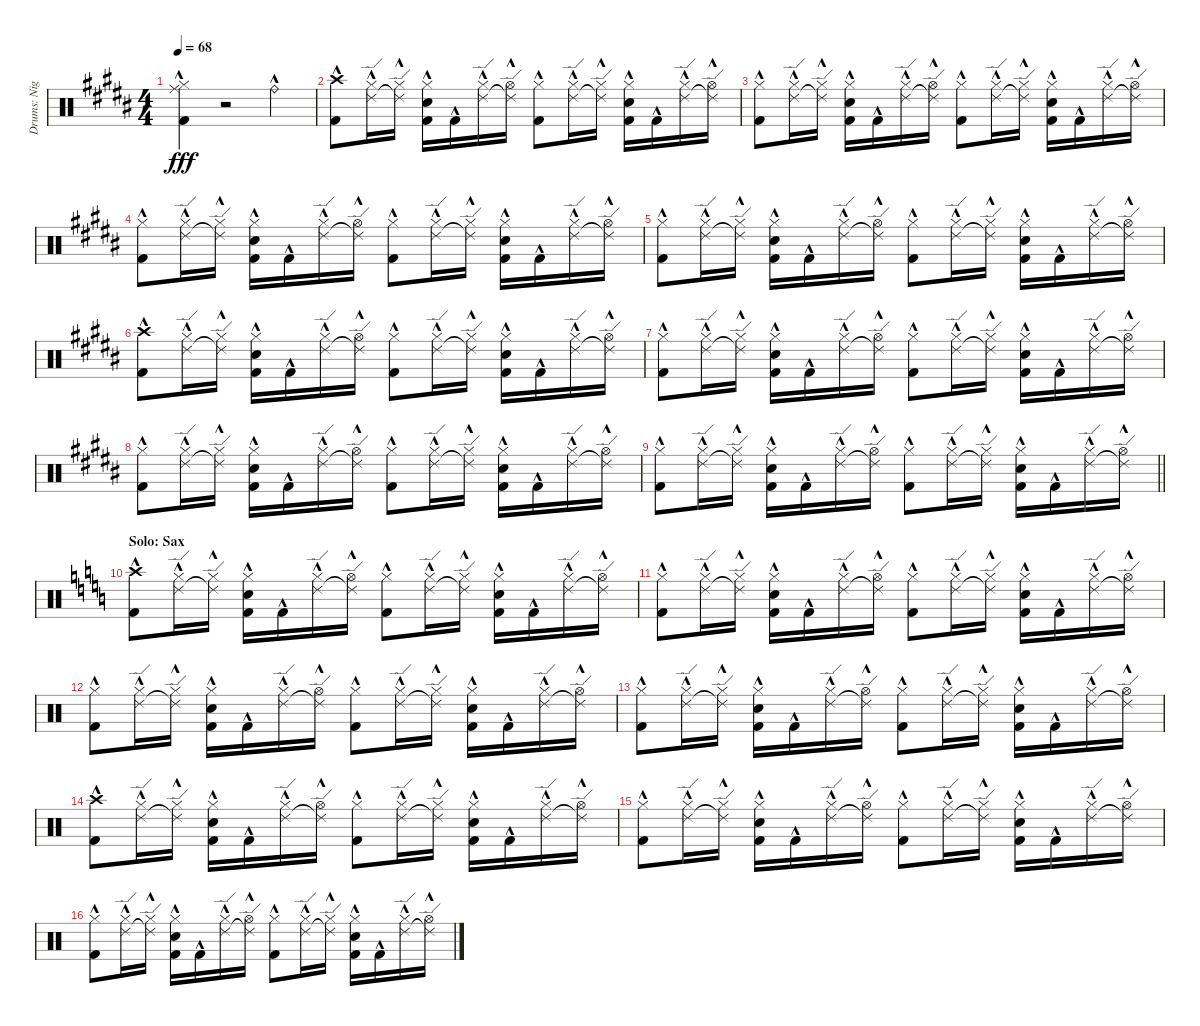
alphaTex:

\track ("Drums: Nigel" "Drums: Nig") {instrument percussion}
\staff {score}
\articulation defaults
\ts (4 4)
\tempo 68
\clef neutral
\ks b
("Ride (middle)"{hac} "Hi-Hat (closed)"{hac} "Kick (hit) 2"{hac}).4{dy fff} r.2 "Ride (bell)"{hac}.4 |
("Crash high (hit)"{hac} "Kick (hit) 2"{hac}).8 ("Ride (edge) 2"{hac} "Hi-Hat (closed)"{hac}).16 ("Ride (edge) 2"{t} "Hi-Hat (closed)"{hac}).16 ("Hi-Hat (closed)"{hac} "Electric Snare (hit)"{hac} "Kick (hit) 2"{hac}).16 "Kick (hit) 2"{hac}.16 ("Ride (edge) 2"{hac} "Hi-Hat (closed)"{hac}).16 ("Ride (edge) 2"{t} "Hi-Hat (open)"{hac}).16 ("Hi-Hat (closed)"{hac} "Kick (hit) 2"{hac}).8 ("Ride (edge) 2"{hac} "Hi-Hat (closed)"{hac}).16 ("Ride (edge) 2"{t} "Hi-Hat (closed)"{hac}).16 ("Hi-Hat (closed)"{hac} "Electric Snare (hit)"{hac} "Kick (hit) 2"{hac}).16 "Kick (hit) 2"{hac}.16 ("Ride (edge) 2"{hac} "Hi-Hat (closed)"{hac}).16 ("Ride (edge) 2"{t} "Hi-Hat (open)"{hac}).16 |
("Hi-Hat (closed)"{hac} "Kick (hit) 2"{hac}).8 ("Ride (edge) 2"{hac} "Hi-Hat (closed)"{hac}).16 ("Ride (edge) 2"{t} "Hi-Hat (closed)"{hac}).16 ("Hi-Hat (closed)"{hac} "Electric Snare (hit)"{hac} "Kick (hit) 2"{hac}).16 "Kick (hit) 2"{hac}.16 ("Ride (edge) 2"{hac} "Hi-Hat (closed)"{hac}).16 ("Ride (edge) 2"{t} "Hi-Hat (open)"{hac}).16 ("Hi-Hat (closed)"{hac} "Kick (hit) 2"{hac}).8 ("Ride (edge) 2"{hac} "Hi-Hat (closed)"{hac}).16 ("Ride (edge) 2"{t} "Hi-Hat (closed)"{hac}).16 ("Hi-Hat (closed)"{hac} "Electric Snare (hit)"{hac} "Kick (hit) 2"{hac}).16 "Kick (hit) 2"{hac}.16 ("Ride (edge) 2"{hac} "Hi-Hat (closed)"{hac}).16 ("Ride (edge) 2"{t} "Hi-Hat (open)"{hac}).16 |
("Hi-Hat (closed)"{hac} "Kick (hit) 2"{hac}).8 ("Ride (edge) 2"{hac} "Hi-Hat (closed)"{hac}).16 ("Ride (edge) 2"{t} "Hi-Hat (closed)"{hac}).16 ("Hi-Hat (closed)"{hac} "Electric Snare (hit)"{hac} "Kick (hit) 2"{hac}).16 "Kick (hit) 2"{hac}.16 ("Ride (edge) 2"{hac} "Hi-Hat (closed)"{hac}).16 ("Ride (edge) 2"{t} "Hi-Hat (open)"{hac}).16 ("Hi-Hat (closed)"{hac} "Kick (hit) 2"{hac}).8 ("Ride (edge) 2"{hac} "Hi-Hat (closed)"{hac}).16 ("Ride (edge) 2"{t} "Hi-Hat (closed)"{hac}).16 ("Hi-Hat (closed)"{hac} "Electric Snare (hit)"{hac} "Kick (hit) 2"{hac}).16 "Kick (hit) 2"{hac}.16 ("Ride (edge) 2"{hac} "Hi-Hat (closed)"{hac}).16 ("Ride (edge) 2"{t} "Hi-Hat (open)"{hac}).16 |
("Hi-Hat (closed)"{hac} "Kick (hit) 2"{hac}).8 ("Ride (edge) 2"{hac} "Hi-Hat (closed)"{hac}).16 ("Ride (edge) 2"{t} "Hi-Hat (closed)"{hac}).16 ("Hi-Hat (closed)"{hac} "Electric Snare (hit)"{hac} "Kick (hit) 2"{hac}).16 "Kick (hit) 2"{hac}.16 ("Ride (edge) 2"{hac} "Hi-Hat (closed)"{hac}).16 ("Ride (edge) 2"{t} "Hi-Hat (open)"{hac}).16 ("Hi-Hat (closed)"{hac} "Kick (hit) 2"{hac}).8 ("Ride (edge) 2"{hac} "Hi-Hat (closed)"{hac}).16 ("Ride (edge) 2"{t} "Hi-Hat (closed)"{hac}).16 ("Hi-Hat (closed)"{hac} "Electric Snare (hit)"{hac} "Kick (hit) 2"{hac}).16 "Kick (hit) 2"{hac}.16 ("Ride (edge) 2"{hac} "Hi-Hat (closed)"{hac}).16 ("Ride (edge) 2"{t} "Hi-Hat (open)"{hac}).16 |
("Crash high (hit)"{hac} "Kick (hit) 2"{hac}).8 ("Ride (edge) 2"{hac} "Hi-Hat (closed)"{hac}).16 ("Ride (edge) 2"{t} "Hi-Hat (closed)"{hac}).16 ("Hi-Hat (closed)"{hac} "Electric Snare (hit)"{hac} "Kick (hit) 2"{hac}).16 "Kick (hit) 2"{hac}.16 ("Ride (edge) 2"{hac} "Hi-Hat (closed)"{hac}).16 ("Ride (edge) 2"{t} "Hi-Hat (open)"{hac}).16 ("Hi-Hat (closed)"{hac} "Kick (hit) 2"{hac}).8 ("Ride (edge) 2"{hac} "Hi-Hat (closed)"{hac}).16 ("Ride (edge) 2"{t} "Hi-Hat (closed)"{hac}).16 ("Hi-Hat (closed)"{hac} "Electric Snare (hit)"{hac} "Kick (hit) 2"{hac}).16 "Kick (hit) 2"{hac}.16 ("Ride (edge) 2"{hac} "Hi-Hat (closed)"{hac}).16 ("Ride (edge) 2"{t} "Hi-Hat (open)"{hac}).16 |
("Hi-Hat (closed)"{hac} "Kick (hit) 2"{hac}).8 ("Ride (edge) 2"{hac} "Hi-Hat (closed)"{hac}).16 ("Ride (edge) 2"{t} "Hi-Hat (closed)"{hac}).16 ("Hi-Hat (closed)"{hac} "Electric Snare (hit)"{hac} "Kick (hit) 2"{hac}).16 "Kick (hit) 2"{hac}.16 ("Ride (edge) 2"{hac} "Hi-Hat (closed)"{hac}).16 ("Ride (edge) 2"{t} "Hi-Hat (open)"{hac}).16 ("Hi-Hat (closed)"{hac} "Kick (hit) 2"{hac}).8 ("Ride (edge) 2"{hac} "Hi-Hat (closed)"{hac}).16 ("Ride (edge) 2"{t} "Hi-Hat (closed)"{hac}).16 ("Hi-Hat (closed)"{hac} "Electric Snare (hit)"{hac} "Kick (hit) 2"{hac}).16 "Kick (hit) 2"{hac}.16 ("Ride (edge) 2"{hac} "Hi-Hat (closed)"{hac}).16 ("Ride (edge) 2"{t} "Hi-Hat (open)"{hac}).16 |
("Hi-Hat (closed)"{hac} "Kick (hit) 2"{hac}).8 ("Ride (edge) 2"{hac} "Hi-Hat (closed)"{hac}).16 ("Ride (edge) 2"{t} "Hi-Hat (closed)"{hac}).16 ("Hi-Hat (closed)"{hac} "Electric Snare (hit)"{hac} "Kick (hit) 2"{hac}).16 "Kick (hit) 2"{hac}.16 ("Ride (edge) 2"{hac} "Hi-Hat (closed)"{hac}).16 ("Ride (edge) 2"{t} "Hi-Hat (open)"{hac}).16 ("Hi-Hat (closed)"{hac} "Kick (hit) 2"{hac}).8 ("Ride (edge) 2"{hac} "Hi-Hat (closed)"{hac}).16 ("Ride (edge) 2"{t} "Hi-Hat (closed)"{hac}).16 ("Hi-Hat (closed)"{hac} "Electric Snare (hit)"{hac} "Kick (hit) 2"{hac}).16 "Kick (hit) 2"{hac}.16 ("Ride (edge) 2"{hac} "Hi-Hat (closed)"{hac}).16 ("Ride (edge) 2"{t} "Hi-Hat (open)"{hac}).16 |
\barLineRight lightlight
("Hi-Hat (closed)"{hac} "Kick (hit) 2"{hac}).8 ("Ride (edge) 2"{hac} "Hi-Hat (closed)"{hac}).16 ("Ride (edge) 2"{t} "Hi-Hat (closed)"{hac}).16 ("Hi-Hat (closed)"{hac} "Electric Snare (hit)"{hac} "Kick (hit) 2"{hac}).16 "Kick (hit) 2"{hac}.16 ("Ride (edge) 2"{hac} "Hi-Hat (closed)"{hac}).16 ("Ride (edge) 2"{t} "Hi-Hat (open)"{hac}).16 ("Hi-Hat (closed)"{hac} "Kick (hit) 2"{hac}).8 ("Ride (edge) 2"{hac} "Hi-Hat (closed)"{hac}).16 ("Ride (edge) 2"{t} "Hi-Hat (closed)"{hac}).16 ("Hi-Hat (closed)"{hac} "Electric Snare (hit)"{hac} "Kick (hit) 2"{hac}).16 "Kick (hit) 2"{hac}.16 ("Ride (edge) 2"{hac} "Hi-Hat (closed)"{hac}).16 ("Ride (edge) 2"{t} "Hi-Hat (open)"{hac}).16 |
\section ("" "Solo: Sax")
\ks c
("Crash high (hit)"{hac} "Kick (hit) 2"{hac}).8 ("Ride (edge) 2"{hac} "Hi-Hat (closed)"{hac}).16 ("Ride (edge) 2"{t} "Hi-Hat (closed)"{hac}).16 ("Hi-Hat (closed)"{hac} "Electric Snare (hit)"{hac} "Kick (hit) 2"{hac}).16 "Kick (hit) 2"{hac}.16 ("Ride (edge) 2"{hac} "Hi-Hat (closed)"{hac}).16 ("Ride (edge) 2"{t} "Hi-Hat (open)"{hac}).16 ("Hi-Hat (closed)"{hac} "Kick (hit) 2"{hac}).8 ("Ride (edge) 2"{hac} "Hi-Hat (closed)"{hac}).16 ("Ride (edge) 2"{t} "Hi-Hat (closed)"{hac}).16 ("Hi-Hat (closed)"{hac} "Electric Snare (hit)"{hac} "Kick (hit) 2"{hac}).16 "Kick (hit) 2"{hac}.16 ("Ride (edge) 2"{hac} "Hi-Hat (closed)"{hac}).16 ("Ride (edge) 2"{t} "Hi-Hat (open)"{hac}).16 |
("Hi-Hat (closed)"{hac} "Kick (hit) 2"{hac}).8 ("Ride (edge) 2"{hac} "Hi-Hat (closed)"{hac}).16 ("Ride (edge) 2"{t} "Hi-Hat (closed)"{hac}).16 ("Hi-Hat (closed)"{hac} "Electric Snare (hit)"{hac} "Kick (hit) 2"{hac}).16 "Kick (hit) 2"{hac}.16 ("Ride (edge) 2"{hac} "Hi-Hat (closed)"{hac}).16 ("Ride (edge) 2"{t} "Hi-Hat (open)"{hac}).16 ("Hi-Hat (closed)"{hac} "Kick (hit) 2"{hac}).8 ("Ride (edge) 2"{hac} "Hi-Hat (closed)"{hac}).16 ("Ride (edge) 2"{t} "Hi-Hat (closed)"{hac}).16 ("Hi-Hat (closed)"{hac} "Electric Snare (hit)"{hac} "Kick (hit) 2"{hac}).16 "Kick (hit) 2"{hac}.16 ("Ride (edge) 2"{hac} "Hi-Hat (closed)"{hac}).16 ("Ride (edge) 2"{t} "Hi-Hat (open)"{hac}).16 |
("Hi-Hat (closed)"{hac} "Kick (hit) 2"{hac}).8 ("Ride (edge) 2"{hac} "Hi-Hat (closed)"{hac}).16 ("Ride (edge) 2"{t} "Hi-Hat (closed)"{hac}).16 ("Hi-Hat (closed)"{hac} "Electric Snare (hit)"{hac} "Kick (hit) 2"{hac}).16 "Kick (hit) 2"{hac}.16 ("Ride (edge) 2"{hac} "Hi-Hat (closed)"{hac}).16 ("Ride (edge) 2"{t} "Hi-Hat (open)"{hac}).16 ("Hi-Hat (closed)"{hac} "Kick (hit) 2"{hac}).8 ("Ride (edge) 2"{hac} "Hi-Hat (closed)"{hac}).16 ("Ride (edge) 2"{t} "Hi-Hat (closed)"{hac}).16 ("Hi-Hat (closed)"{hac} "Electric Snare (hit)"{hac} "Kick (hit) 2"{hac}).16 "Kick (hit) 2"{hac}.16 ("Ride (edge) 2"{hac} "Hi-Hat (closed)"{hac}).16 ("Ride (edge) 2"{t} "Hi-Hat (open)"{hac}).16 |
("Hi-Hat (closed)"{hac} "Kick (hit) 2"{hac}).8 ("Ride (edge) 2"{hac} "Hi-Hat (closed)"{hac}).16 ("Ride (edge) 2"{t} "Hi-Hat (closed)"{hac}).16 ("Hi-Hat (closed)"{hac} "Electric Snare (hit)"{hac} "Kick (hit) 2"{hac}).16 "Kick (hit) 2"{hac}.16 ("Ride (edge) 2"{hac} "Hi-Hat (closed)"{hac}).16 ("Ride (edge) 2"{t} "Hi-Hat (open)"{hac}).16 ("Hi-Hat (closed)"{hac} "Kick (hit) 2"{hac}).8 ("Ride (edge) 2"{hac} "Hi-Hat (closed)"{hac}).16 ("Ride (edge) 2"{t} "Hi-Hat (closed)"{hac}).16 ("Hi-Hat (closed)"{hac} "Electric Snare (hit)"{hac} "Kick (hit) 2"{hac}).16 "Kick (hit) 2"{hac}.16 ("Ride (edge) 2"{hac} "Hi-Hat (closed)"{hac}).16 ("Ride (edge) 2"{t} "Hi-Hat (open)"{hac}).16 |
("Crash high (hit)"{hac} "Kick (hit) 2"{hac}).8 ("Ride (edge) 2"{hac} "Hi-Hat (closed)"{hac}).16 ("Ride (edge) 2"{t} "Hi-Hat (closed)"{hac}).16 ("Hi-Hat (closed)"{hac} "Electric Snare (hit)"{hac} "Kick (hit) 2"{hac}).16 "Kick (hit) 2"{hac}.16 ("Ride (edge) 2"{hac} "Hi-Hat (closed)"{hac}).16 ("Ride (edge) 2"{t} "Hi-Hat (open)"{hac}).16 ("Hi-Hat (closed)"{hac} "Kick (hit) 2"{hac}).8 ("Ride (edge) 2"{hac} "Hi-Hat (closed)"{hac}).16 ("Ride (edge) 2"{t} "Hi-Hat (closed)"{hac}).16 ("Hi-Hat (closed)"{hac} "Electric Snare (hit)"{hac} "Kick (hit) 2"{hac}).16 "Kick (hit) 2"{hac}.16 ("Ride (edge) 2"{hac} "Hi-Hat (closed)"{hac}).16 ("Ride (edge) 2"{t} "Hi-Hat (open)"{hac}).16 |
("Hi-Hat (closed)"{hac} "Kick (hit) 2"{hac}).8 ("Ride (edge) 2"{hac} "Hi-Hat (closed)"{hac}).16 ("Ride (edge) 2"{t} "Hi-Hat (closed)"{hac}).16 ("Hi-Hat (closed)"{hac} "Electric Snare (hit)"{hac} "Kick (hit) 2"{hac}).16 "Kick (hit) 2"{hac}.16 ("Ride (edge) 2"{hac} "Hi-Hat (closed)"{hac}).16 ("Ride (edge) 2"{t} "Hi-Hat (open)"{hac}).16 ("Hi-Hat (closed)"{hac} "Kick (hit) 2"{hac}).8 ("Ride (edge) 2"{hac} "Hi-Hat (closed)"{hac}).16 ("Ride (edge) 2"{t} "Hi-Hat (closed)"{hac}).16 ("Hi-Hat (closed)"{hac} "Electric Snare (hit)"{hac} "Kick (hit) 2"{hac}).16 "Kick (hit) 2"{hac}.16 ("Ride (edge) 2"{hac} "Hi-Hat (closed)"{hac}).16 ("Ride (edge) 2"{t} "Hi-Hat (open)"{hac}).16 |
("Hi-Hat (closed)"{hac} "Kick (hit) 2"{hac}).8 ("Ride (edge) 2"{hac} "Hi-Hat (closed)"{hac}).16 ("Ride (edge) 2"{t} "Hi-Hat (closed)"{hac}).16 ("Hi-Hat (closed)"{hac} "Electric Snare (hit)"{hac} "Kick (hit) 2"{hac}).16 "Kick (hit) 2"{hac}.16 ("Ride (edge) 2"{hac} "Hi-Hat (closed)"{hac}).16 ("Ride (edge) 2"{t} "Hi-Hat (open)"{hac}).16 ("Hi-Hat (closed)"{hac} "Kick (hit) 2"{hac}).8 ("Ride (edge) 2"{hac} "Hi-Hat (closed)"{hac}).16 ("Ride (edge) 2"{t} "Hi-Hat (closed)"{hac}).16 ("Hi-Hat (closed)"{hac} "Electric Snare (hit)"{hac} "Kick (hit) 2"{hac}).16 "Kick (hit) 2"{hac}.16 ("Ride (edge) 2"{hac} "Hi-Hat (closed)"{hac}).16 ("Ride (edge) 2"{t} "Hi-Hat (open)"{hac}).16
